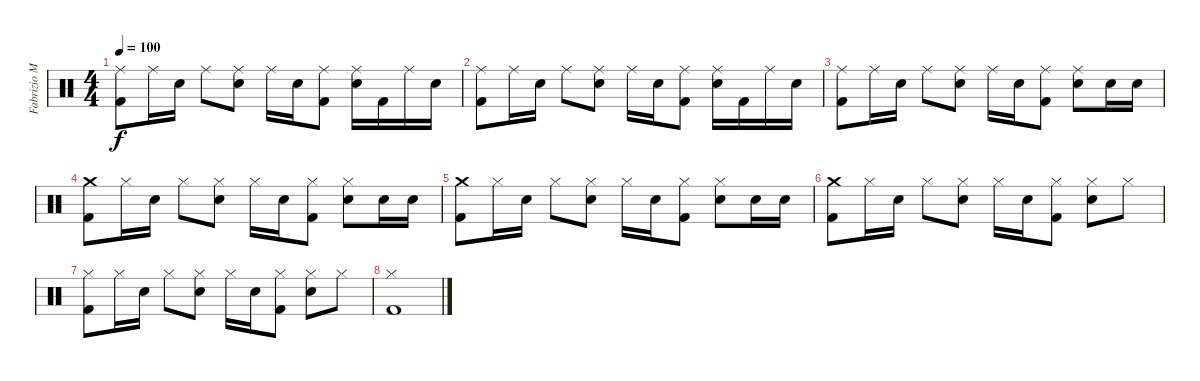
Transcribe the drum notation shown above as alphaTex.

\track ("Fabrizio Moretti" "Fabrizio M") {instrument percussion}
\staff {score}
\articulation defaults
\ts (4 4)
\tempo 100
\clef neutral
\ks c
("Ride (middle)" "Kick (hit) 2").8{dy f} "Ride (middle)".16 "Snare (hit) 2".16 "Ride (middle)".8 ("Ride (middle)" "Snare (hit) 2").8 "Ride (middle)".16 "Snare (hit) 2".16 ("Ride (middle)" "Kick (hit) 2").8 ("Ride (middle)" "Snare (hit) 2").16 "Kick (hit) 2".16 "Ride (middle)".16 "Snare (hit) 2".16 |
("Ride (middle)" "Kick (hit) 2").8 "Ride (middle)".16 "Snare (hit) 2".16 "Ride (middle)".8 ("Ride (middle)" "Snare (hit) 2").8 "Ride (middle)".16 "Snare (hit) 2".16 ("Ride (middle)" "Kick (hit) 2").8 ("Ride (middle)" "Snare (hit) 2").16 "Kick (hit) 2".16 "Ride (middle)".16 "Snare (hit) 2".16 |
("Ride (middle)" "Kick (hit) 2").8 "Ride (middle)".16 "Snare (hit) 2".16 "Ride (middle)".8 ("Ride (middle)" "Snare (hit) 2").8 "Ride (middle)".16 "Snare (hit) 2".16 ("Ride (middle)" "Kick (hit) 2").8 ("Ride (middle)" "Snare (hit) 2").8 "Snare (hit) 2".16 "Snare (hit) 2".16 |
("Crash medium (hit)" "Kick (hit) 2").8 "Hi-Hat (closed)".16 "Snare (hit) 2".16 "Hi-Hat (closed)".8 ("Hi-Hat (closed)" "Snare (hit) 2").8 "Hi-Hat (closed)".16 "Snare (hit) 2".16 ("Hi-Hat (closed)" "Kick (hit) 2").8 ("Hi-Hat (closed)" "Snare (hit) 2").8 "Snare (hit) 2".16 "Snare (hit) 2".16 |
("Crash medium (hit)" "Kick (hit) 2").8 "Hi-Hat (closed)".16 "Snare (hit) 2".16 "Hi-Hat (closed)".8 ("Hi-Hat (closed)" "Snare (hit) 2").8 "Hi-Hat (closed)".16 "Snare (hit) 2".16 ("Hi-Hat (closed)" "Kick (hit) 2").8 ("Hi-Hat (closed)" "Snare (hit) 2").8 "Snare (hit) 2".16 "Snare (hit) 2".16 |
("Crash medium (hit)" "Kick (hit) 2").8 "Hi-Hat (closed)".16 "Snare (hit) 2".16 "Hi-Hat (closed)".8 ("Hi-Hat (closed)" "Snare (hit) 2").8 "Hi-Hat (closed)".16 "Snare (hit) 2".16 ("Hi-Hat (closed)" "Kick (hit) 2").8 ("Hi-Hat (closed)" "Snare (hit) 2").8 "Hi-Hat (closed)".8 |
("Hi-Hat (closed)" "Kick (hit) 2").8 "Hi-Hat (closed)".16 "Snare (hit) 2".16 "Hi-Hat (closed)".8 ("Hi-Hat (closed)" "Snare (hit) 2").8 "Hi-Hat (closed)".16 "Snare (hit) 2".16 ("Hi-Hat (closed)" "Kick (hit) 2").8 ("Hi-Hat (closed)" "Snare (hit) 2").8 "Hi-Hat (closed)".8 |
("Hi-Hat (closed)" "Kick (hit) 2").1
